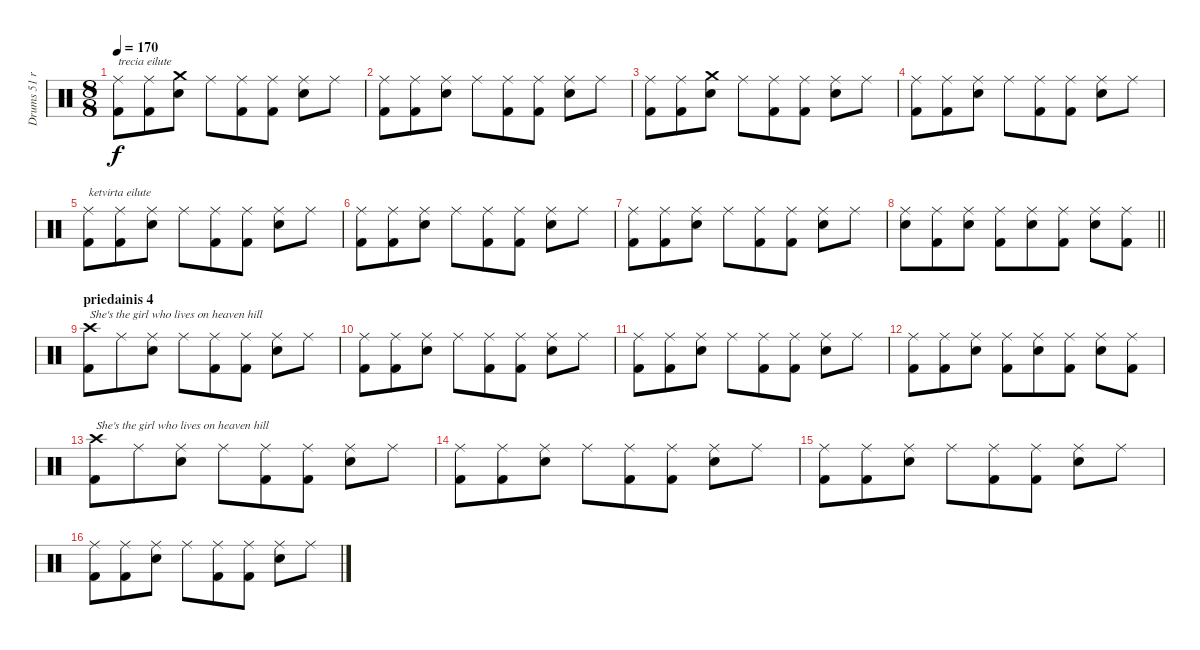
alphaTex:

\track ("Drums 51 ride ALBUM" "Drums 51 r") {mute instrument percussion}
\staff {score}
\articulation defaults
\ts (8 8)
\tempo 170
\clef neutral
\ks c
("Ride (middle)" "Kick (hit) 2").8{txt "trecia eilute" dy f} ("Ride (middle)" "Kick (hit) 2").8 ("Crash medium (hit)" "Snare (hit) 2").8 "Ride (middle)".8 ("Ride (middle)" "Kick (hit) 2").8 ("Ride (middle)" "Kick (hit) 2").8 ("Ride (middle)" "Snare (hit) 2").8 "Ride (middle)".8 |
("Ride (middle)" "Kick (hit) 2").8 ("Ride (middle)" "Kick (hit) 2").8 ("Ride (middle)" "Snare (hit) 2").8 "Ride (middle)".8 ("Ride (middle)" "Kick (hit) 2").8 ("Ride (middle)" "Kick (hit) 2").8 ("Ride (middle)" "Snare (hit) 2").8 "Ride (middle)".8 |
("Ride (middle)" "Kick (hit) 2").8 ("Ride (middle)" "Kick (hit) 2").8 ("Crash medium (hit)" "Snare (hit) 2").8 "Ride (middle)".8 ("Ride (middle)" "Kick (hit) 2").8 ("Ride (middle)" "Kick (hit) 2").8 ("Ride (middle)" "Snare (hit) 2").8 "Ride (middle)".8 |
("Ride (middle)" "Kick (hit) 2").8 ("Ride (middle)" "Kick (hit) 2").8 ("Ride (middle)" "Snare (hit) 2").8 "Ride (middle)".8 ("Ride (middle)" "Kick (hit) 2").8 ("Ride (middle)" "Kick (hit) 2").8 ("Ride (middle)" "Snare (hit) 2").8 "Ride (middle)".8 |
("Ride (middle)" "Kick (hit) 2").8{txt "ketvirta eilute"} ("Ride (middle)" "Kick (hit) 2").8 ("Ride (middle)" "Snare (hit) 2").8 "Ride (middle)".8 ("Ride (middle)" "Kick (hit) 2").8 ("Ride (middle)" "Kick (hit) 2").8 ("Ride (middle)" "Snare (hit) 2").8 "Ride (middle)".8 |
("Ride (middle)" "Kick (hit) 2").8 ("Ride (middle)" "Kick (hit) 2").8 ("Ride (middle)" "Snare (hit) 2").8 "Ride (middle)".8 ("Ride (middle)" "Kick (hit) 2").8 ("Ride (middle)" "Kick (hit) 2").8 ("Ride (middle)" "Snare (hit) 2").8 "Ride (middle)".8 |
("Ride (middle)" "Kick (hit) 2").8 ("Ride (middle)" "Kick (hit) 2").8 ("Ride (middle)" "Snare (hit) 2").8 "Ride (middle)".8 ("Ride (middle)" "Kick (hit) 2").8 ("Ride (middle)" "Kick (hit) 2").8 ("Ride (middle)" "Snare (hit) 2").8 "Ride (middle)".8 |
\barLineRight lightlight
("Ride (middle)" "Snare (hit) 2").8 ("Ride (middle)" "Kick (hit) 2").8 ("Ride (middle)" "Snare (hit) 2").8 ("Ride (middle)" "Kick (hit) 2").8 ("Ride (middle)" "Snare (hit) 2").8 ("Ride (middle)" "Kick (hit) 2").8 ("Ride (middle)" "Snare (hit) 2").8 ("Ride (middle)" "Kick (hit) 2").8 |
\section ("" "priedainis 4")
("Crash high (hit)" "Kick (hit) 2").8{txt "She's the girl who lives on heaven hill"} "Ride (middle)".8 ("Ride (middle)" "Snare (hit) 2").8 "Ride (middle)".8 ("Ride (middle)" "Kick (hit) 2").8 ("Ride (middle)" "Kick (hit) 2").8 ("Ride (middle)" "Snare (hit) 2").8 "Ride (middle)".8 |
("Ride (middle)" "Kick (hit) 2").8 ("Ride (middle)" "Kick (hit) 2").8 ("Ride (middle)" "Snare (hit) 2").8 "Ride (middle)".8 ("Ride (middle)" "Kick (hit) 2").8 ("Ride (middle)" "Kick (hit) 2").8 ("Ride (middle)" "Snare (hit) 2").8 "Ride (middle)".8 |
("Ride (middle)" "Kick (hit) 2").8 ("Ride (middle)" "Kick (hit) 2").8 ("Ride (middle)" "Snare (hit) 2").8 "Ride (middle)".8 ("Ride (middle)" "Kick (hit) 2").8 ("Ride (middle)" "Kick (hit) 2").8 ("Ride (middle)" "Snare (hit) 2").8 "Ride (middle)".8 |
("Ride (middle)" "Kick (hit) 2").8 ("Ride (middle)" "Kick (hit) 2").8 ("Ride (middle)" "Snare (hit) 2").8 ("Ride (middle)" "Kick (hit) 2").8 ("Ride (middle)" "Snare (hit) 2").8 ("Ride (middle)" "Kick (hit) 2").8 ("Ride (middle)" "Snare (hit) 2").8 ("Ride (middle)" "Kick (hit) 2").8 |
("Crash high (hit)" "Kick (hit) 2").8{txt "She's the girl who lives on heaven hill"} "Ride (middle)".8 ("Ride (middle)" "Snare (hit) 2").8 "Ride (middle)".8 ("Ride (middle)" "Kick (hit) 2").8 ("Ride (middle)" "Kick (hit) 2").8 ("Ride (middle)" "Snare (hit) 2").8 "Ride (middle)".8 |
("Ride (middle)" "Kick (hit) 2").8 ("Ride (middle)" "Kick (hit) 2").8 ("Ride (middle)" "Snare (hit) 2").8 "Ride (middle)".8 ("Ride (middle)" "Kick (hit) 2").8 ("Ride (middle)" "Kick (hit) 2").8 ("Ride (middle)" "Snare (hit) 2").8 "Ride (middle)".8 |
("Ride (middle)" "Kick (hit) 2").8 ("Ride (middle)" "Kick (hit) 2").8 ("Ride (middle)" "Snare (hit) 2").8 "Ride (middle)".8 ("Ride (middle)" "Kick (hit) 2").8 ("Ride (middle)" "Kick (hit) 2").8 ("Ride (middle)" "Snare (hit) 2").8 "Ride (middle)".8 |
("Ride (middle)" "Kick (hit) 2").8 ("Ride (middle)" "Kick (hit) 2").8 ("Ride (middle)" "Snare (hit) 2").8 "Ride (middle)".8 ("Ride (middle)" "Kick (hit) 2").8 ("Ride (middle)" "Kick (hit) 2").8 ("Ride (middle)" "Snare (hit) 2").8 "Ride (middle)".8
